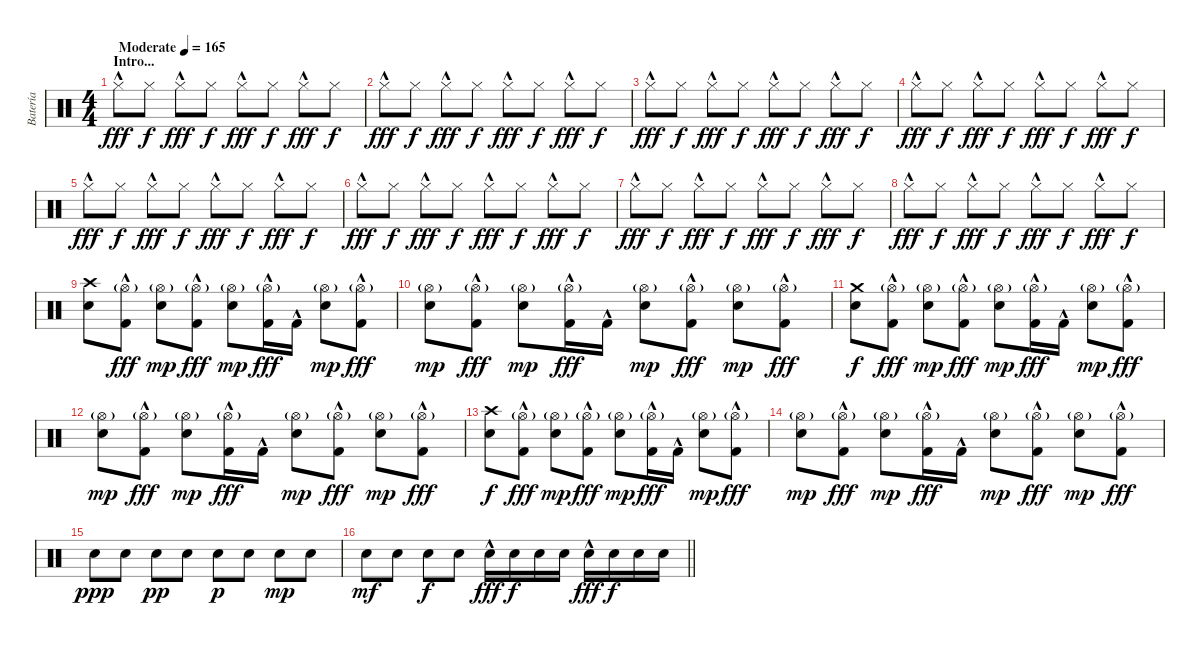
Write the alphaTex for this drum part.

\track ("Batería" "Batería") {instrument percussion}
\staff {score}
\articulation defaults
\ts (4 4)
\section ("" "Intro...")
\tempo (165 "Moderate")
\clef neutral
\ks c "Hi-Hat (closed)"{hac}.8{dy fff volume 6} "Hi-Hat (closed)".8{dy f} "Hi-Hat (closed)"{hac}.8{dy fff} "Hi-Hat (closed)".8{dy f} "Hi-Hat (closed)"{hac}.8{dy fff} "Hi-Hat (closed)".8{dy f} "Hi-Hat (closed)"{hac}.8{dy fff} "Hi-Hat (closed)".8{dy f}
|
"Hi-Hat (closed)"{hac}.8{dy fff} "Hi-Hat (closed)".8{dy f} "Hi-Hat (closed)"{hac}.8{dy fff} "Hi-Hat (closed)".8{dy f} "Hi-Hat (closed)"{hac}.8{dy fff} "Hi-Hat (closed)".8{dy f} "Hi-Hat (closed)"{hac}.8{dy fff} "Hi-Hat (closed)".8{dy f} |
"Hi-Hat (closed)"{hac}.8{dy fff} "Hi-Hat (closed)".8{dy f} "Hi-Hat (closed)"{hac}.8{dy fff} "Hi-Hat (closed)".8{dy f} "Hi-Hat (closed)"{hac}.8{dy fff} "Hi-Hat (closed)".8{dy f} "Hi-Hat (closed)"{hac}.8{dy fff} "Hi-Hat (closed)".8{dy f} |
"Hi-Hat (closed)"{hac}.8{dy fff} "Hi-Hat (closed)".8{dy f} "Hi-Hat (closed)"{hac}.8{dy fff} "Hi-Hat (closed)".8{dy f} "Hi-Hat (closed)"{hac}.8{dy fff} "Hi-Hat (closed)".8{dy f} "Hi-Hat (closed)"{hac}.8{dy fff} "Hi-Hat (closed)".8{dy f} |
"Hi-Hat (closed)"{hac}.8{dy fff} "Hi-Hat (closed)".8{dy f} "Hi-Hat (closed)"{hac}.8{dy fff} "Hi-Hat (closed)".8{dy f} "Hi-Hat (closed)"{hac}.8{dy fff} "Hi-Hat (closed)".8{dy f} "Hi-Hat (closed)"{hac}.8{dy fff} "Hi-Hat (closed)".8{dy f} |
"Hi-Hat (closed)"{hac}.8{dy fff} "Hi-Hat (closed)".8{dy f} "Hi-Hat (closed)"{hac}.8{dy fff} "Hi-Hat (closed)".8{dy f} "Hi-Hat (closed)"{hac}.8{dy fff} "Hi-Hat (closed)".8{dy f} "Hi-Hat (closed)"{hac}.8{dy fff} "Hi-Hat (closed)".8{dy f} |
"Hi-Hat (closed)"{hac}.8{dy fff} "Hi-Hat (closed)".8{dy f} "Hi-Hat (closed)"{hac}.8{dy fff} "Hi-Hat (closed)".8{dy f} "Hi-Hat (closed)"{hac}.8{dy fff} "Hi-Hat (closed)".8{dy f} "Hi-Hat (closed)"{hac}.8{dy fff} "Hi-Hat (closed)".8{dy f} |
"Hi-Hat (closed)"{hac}.8{dy fff} "Hi-Hat (closed)".8{dy f} "Hi-Hat (closed)"{hac}.8{dy fff} "Hi-Hat (closed)".8{dy f} "Hi-Hat (closed)"{hac}.8{dy fff} "Hi-Hat (closed)".8{dy f} "Hi-Hat (closed)"{hac}.8{dy fff} "Hi-Hat (closed)".8{dy f} |
("Crash high (hit)" "Snare (hit) 2").8{volume 13} ("Hi-Hat (open)"{g} "Kick (hit) 2"{hac}).8{dy fff} ("Hi-Hat (open)"{g} "Snare (hit) 2").8{dy mp} ("Hi-Hat (open)"{g} "Kick (hit) 2"{hac}).8{dy fff} ("Hi-Hat (open)"{g} "Snare (hit) 2").8{dy mp} ("Hi-Hat (open)"{g} "Kick (hit) 2"{hac}).16{dy fff} "Kick (hit) 2"{hac}.16 ("Hi-Hat (open)"{g} "Snare (hit) 2").8{dy mp} ("Hi-Hat (open)"{g} "Kick (hit) 2"{hac}).8{dy fff} |
("Hi-Hat (open)"{g} "Snare (hit) 2").8{dy mp} ("Hi-Hat (open)"{g} "Kick (hit) 2"{hac}).8{dy fff} ("Hi-Hat (open)"{g} "Snare (hit) 2").8{dy mp} ("Hi-Hat (open)"{g} "Kick (hit) 2"{hac}).16{dy fff} "Kick (hit) 2"{hac}.16 ("Hi-Hat (open)"{g} "Snare (hit) 2").8{dy mp} ("Hi-Hat (open)"{g} "Kick (hit) 2"{hac}).8{dy fff} ("Hi-Hat (open)"{g} "Snare (hit) 2").8{dy mp} ("Hi-Hat (open)"{g} "Kick (hit) 2"{hac}).8{dy fff} |
("Crash medium (hit)" "Snare (hit) 2").8{dy f} ("Hi-Hat (open)"{g} "Kick (hit) 2"{hac}).8{dy fff} ("Hi-Hat (open)"{g} "Snare (hit) 2").8{dy mp} ("Hi-Hat (open)"{g} "Kick (hit) 2"{hac}).8{dy fff} ("Hi-Hat (open)"{g} "Snare (hit) 2").8{dy mp} ("Hi-Hat (open)"{g} "Kick (hit) 2"{hac}).16{dy fff} "Kick (hit) 2"{hac}.16 ("Hi-Hat (open)"{g} "Snare (hit) 2").8{dy mp} ("Hi-Hat (open)"{g} "Kick (hit) 2"{hac}).8{dy fff} |
("Hi-Hat (open)"{g} "Snare (hit) 2").8{dy mp} ("Hi-Hat (open)"{g} "Kick (hit) 2"{hac}).8{dy fff} ("Hi-Hat (open)"{g} "Snare (hit) 2").8{dy mp} ("Hi-Hat (open)"{g} "Kick (hit) 2"{hac}).16{dy fff} "Kick (hit) 2"{hac}.16 ("Hi-Hat (open)"{g} "Snare (hit) 2").8{dy mp} ("Hi-Hat (open)"{g} "Kick (hit) 2"{hac}).8{dy fff} ("Hi-Hat (open)"{g} "Snare (hit) 2").8{dy mp} ("Hi-Hat (open)"{g} "Kick (hit) 2"{hac}).8{dy fff} |
("Crash high (hit)" "Snare (hit) 2").8{dy f} ("Hi-Hat (open)"{g} "Kick (hit) 2"{hac}).8{dy fff} ("Hi-Hat (open)"{g} "Snare (hit) 2").8{dy mp} ("Hi-Hat (open)"{g} "Kick (hit) 2"{hac}).8{dy fff} ("Hi-Hat (open)"{g} "Snare (hit) 2").8{dy mp} ("Hi-Hat (open)"{g} "Kick (hit) 2"{hac}).16{dy fff} "Kick (hit) 2"{hac}.16 ("Hi-Hat (open)"{g} "Snare (hit) 2").8{dy mp} ("Hi-Hat (open)"{g} "Kick (hit) 2"{hac}).8{dy fff} |
("Hi-Hat (open)"{g} "Snare (hit) 2").8{dy mp} ("Hi-Hat (open)"{g} "Kick (hit) 2"{hac}).8{dy fff} ("Hi-Hat (open)"{g} "Snare (hit) 2").8{dy mp} ("Hi-Hat (open)"{g} "Kick (hit) 2"{hac}).16{dy fff} "Kick (hit) 2"{hac}.16 ("Hi-Hat (open)"{g} "Snare (hit) 2").8{dy mp} ("Hi-Hat (open)"{g} "Kick (hit) 2"{hac}).8{dy fff} ("Hi-Hat (open)"{g} "Snare (hit) 2").8{dy mp} ("Hi-Hat (open)"{g} "Kick (hit) 2"{hac}).8{dy fff} |
"Snare (hit) 2".8{dy ppp} "Snare (hit) 2".8 "Snare (hit) 2".8{dy pp} "Snare (hit) 2".8 "Snare (hit) 2".8{dy p} "Snare (hit) 2".8 "Snare (hit) 2".8{dy mp} "Snare (hit) 2".8 |
\barLineRight lightlight "Snare (hit) 2".8{dy mf} "Snare (hit) 2".8 "Snare (hit) 2".8{dy f} "Snare (hit) 2".8 "Snare (hit) 2"{hac}.16{dy fff} "Snare (hit) 2".16{dy f} "Snare (hit) 2".16 "Snare (hit) 2".16 "Snare (hit) 2"{hac}.16{dy fff} "Snare (hit) 2".16{dy f} "Snare (hit) 2".16 "Snare (hit) 2".16
